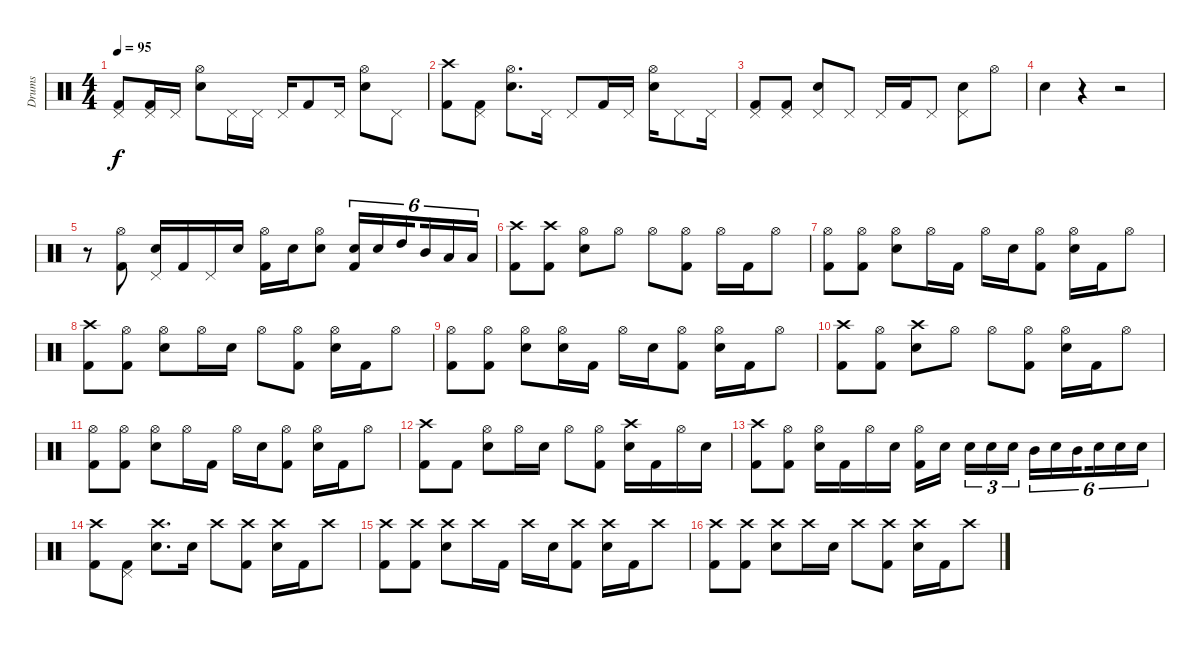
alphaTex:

\track ("Drums" "Drums") {instrument percussion}
\staff {score}
\articulation defaults
\ts (4 4)
\tempo 95
\clef neutral
\ks c
("Pedal Hi-Hat (hit)" "Kick (hit) 2").8{dy f} ("Pedal Hi-Hat (hit)" "Kick (hit) 2").16 "Pedal Hi-Hat (hit)".16 ("Hi-Hat (open)" "Electric Snare (hit)").8 "Pedal Hi-Hat (hit)".16 "Pedal Hi-Hat (hit)".16 "Pedal Hi-Hat (hit)".16 "Kick (hit) 2".8 "Pedal Hi-Hat (hit)".16 ("Hi-Hat (open)" "Electric Snare (hit)").8 "Pedal Hi-Hat (hit)".8 |
("Crash high (hit)" "Kick (hit) 2").8 ("Pedal Hi-Hat (hit)" "Kick (hit) 2").8 ("Hi-Hat (open)" "Electric Snare (hit)").8{d} "Pedal Hi-Hat (hit)".16 "Pedal Hi-Hat (hit)".8 "Kick (hit) 2".16 "Pedal Hi-Hat (hit)".16 ("Hi-Hat (open)" "Electric Snare (hit)").16 "Pedal Hi-Hat (hit)".8 "Pedal Hi-Hat (hit)".16 |
("Pedal Hi-Hat (hit)" "Kick (hit) 2").8 ("Pedal Hi-Hat (hit)" "Kick (hit) 2").8 ("Pedal Hi-Hat (hit)" "Electric Snare (hit)").8 "Pedal Hi-Hat (hit)".8 "Pedal Hi-Hat (hit)".16 "Kick (hit) 2".16 "Pedal Hi-Hat (hit)".8 ("Pedal Hi-Hat (hit)" "Electric Snare (hit)").8 "Hi-Hat (open)".8 |
"Electric Snare (hit)".4 r.4 r.2 |
r.8 ("Hi-Hat (open)" "Kick (hit) 2").8 ("Pedal Hi-Hat (hit)" "Electric Snare (hit)").16 "Kick (hit) 2".16 "Pedal Hi-Hat (hit)".16 "Electric Snare (hit)".16 ("Hi-Hat (open)" "Kick (hit) 2").16 "Electric Snare (hit)".16 ("Hi-Hat (open)" "Electric Snare (hit)").8 ("Electric Snare (hit)" "Kick (hit) 2").16{tu (6 4)} "Electric Snare (hit)".16{tu (6 4)} "High Tom (hit)".16{tu (6 4) beam splitsecondary} "Mid Tom (hit)".16{tu (6 4)} "Low Tom (hit)".16{tu (6 4)} "Low Tom (hit)".16{tu (6 4)} |
("Crash high (hit)" "Kick (hit) 2").8 ("Crash high (hit)" "Kick (hit) 2").8 ("Hi-Hat (open)" "Electric Snare (hit)").8 "Hi-Hat (open)".8 "Hi-Hat (open)".8 ("Hi-Hat (open)" "Kick (hit) 2").8 "Hi-Hat (open)".16 "Kick (hit) 2".16 "Hi-Hat (open)".8 |
("Hi-Hat (open)" "Kick (hit) 2").8 ("Hi-Hat (open)" "Kick (hit) 2").8 ("Hi-Hat (open)" "Electric Snare (hit)").8 "Hi-Hat (open)".16 "Kick (hit) 2".16 "Hi-Hat (open)".16 "Electric Snare (hit)".16 ("Hi-Hat (open)" "Kick (hit) 2").8 ("Hi-Hat (open)" "Electric Snare (hit)").16 "Kick (hit) 2".16 "Hi-Hat (open)".8 |
("Crash high (hit)" "Kick (hit) 2").8 ("Hi-Hat (open)" "Kick (hit) 2").8 ("Hi-Hat (open)" "Electric Snare (hit)").8 "Hi-Hat (open)".16 "Electric Snare (hit)".16 "Hi-Hat (open)".8 ("Hi-Hat (open)" "Kick (hit) 2").8 ("Hi-Hat (open)" "Electric Snare (hit)").16 "Kick (hit) 2".16 "Hi-Hat (open)".8 |
("Hi-Hat (open)" "Kick (hit) 2").8 ("Hi-Hat (open)" "Kick (hit) 2").8 ("Hi-Hat (open)" "Electric Snare (hit)").8 ("Hi-Hat (open)" "Electric Snare (hit)").16 "Kick (hit) 2".16 "Hi-Hat (open)".16 "Electric Snare (hit)".16 ("Hi-Hat (open)" "Kick (hit) 2").8 ("Hi-Hat (open)" "Electric Snare (hit)").16 "Kick (hit) 2".16 "Hi-Hat (open)".8 |
("Crash high (hit)" "Kick (hit) 2").8 ("Hi-Hat (open)" "Kick (hit) 2").8 ("Crash high (hit)" "Electric Snare (hit)").8 "Hi-Hat (open)".8 "Hi-Hat (open)".8 ("Hi-Hat (open)" "Kick (hit) 2").8 ("Hi-Hat (open)" "Electric Snare (hit)").16 "Kick (hit) 2".16 "Hi-Hat (open)".8 |
("Hi-Hat (open)" "Kick (hit) 2").8 ("Hi-Hat (open)" "Kick (hit) 2").8 ("Hi-Hat (open)" "Electric Snare (hit)").8 "Hi-Hat (open)".16 "Kick (hit) 2".16 "Hi-Hat (open)".16 "Electric Snare (hit)".16 ("Hi-Hat (open)" "Kick (hit) 2").8 ("Hi-Hat (open)" "Electric Snare (hit)").16 "Kick (hit) 2".16 "Hi-Hat (open)".8 |
("Crash high (hit)" "Kick (hit) 2").8 "Kick (hit) 2".8 ("Hi-Hat (open)" "Electric Snare (hit)").8 "Hi-Hat (open)".16 "Electric Snare (hit)".16 "Hi-Hat (open)".8 ("Hi-Hat (open)" "Kick (hit) 2").8 ("Crash high (hit)" "Electric Snare (hit)").16 "Kick (hit) 2".16 "Hi-Hat (open)".16 "Electric Snare (hit)".16 |
("Crash high (hit)" "Kick (hit) 2").8 ("Hi-Hat (open)" "Kick (hit) 2").8 ("Hi-Hat (open)" "Electric Snare (hit)").16 "Kick (hit) 2".16 "Hi-Hat (open)".16 "Electric Snare (hit)".16 ("Hi-Hat (open)" "Kick (hit) 2").16 "Electric Snare (hit)".16{beam splitsecondary} "Electric Snare (hit)".16{tu (3 2)} "Electric Snare (hit)".16{tu (3 2)} "Electric Snare (hit)".16{tu (3 2)} "Mid Tom (hit)".16{tu (6 4)} "Electric Snare (hit)".16{tu (6 4)} "Mid Tom (hit)".16{tu (6 4) beam splitsecondary} "Electric Snare (hit)".16{tu (6 4)} "Electric Snare (hit)".16{tu (6 4)} "Electric Snare (hit)".16{tu (6 4)} |
("Crash high (hit)" "Kick (hit) 2").8 ("Pedal Hi-Hat (hit)" "Kick (hit) 2").8 ("Crash high (hit)" "Electric Snare (hit)").8{d} "Electric Snare (hit)".16 "Crash high (hit)".8 ("Crash high (hit)" "Kick (hit) 2").8 ("Crash high (hit)" "Electric Snare (hit)").16 "Kick (hit) 2".16 "Crash high (hit)".8 |
("Crash high (hit)" "Kick (hit) 2").8 ("Crash high (hit)" "Kick (hit) 2").8 ("Crash high (hit)" "Electric Snare (hit)").8 "Crash high (hit)".16 "Kick (hit) 2".16 "Crash high (hit)".16 "Electric Snare (hit)".16 ("Crash high (hit)" "Kick (hit) 2").8 ("Crash high (hit)" "Electric Snare (hit)").16 "Kick (hit) 2".16 "Crash high (hit)".8 |
("Crash high (hit)" "Kick (hit) 2").8 ("Crash high (hit)" "Kick (hit) 2").8 ("Crash high (hit)" "Electric Snare (hit)").8 "Crash high (hit)".16 "Electric Snare (hit)".16 "Crash high (hit)".8 ("Crash high (hit)" "Kick (hit) 2").8 ("Crash high (hit)" "Electric Snare (hit)").16 "Kick (hit) 2".16 "Crash high (hit)".8
